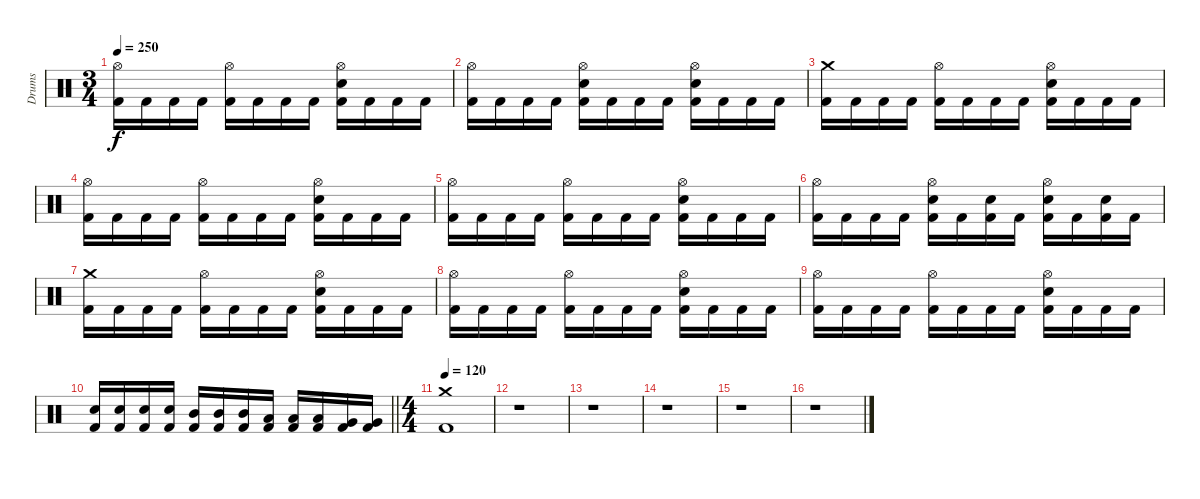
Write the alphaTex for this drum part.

\track ("Drums" "Drums") {instrument percussion}
\staff {score}
\articulation defaults
\ts (3 4)
\tempo 250
\clef neutral
\ks c
("Hi-Hat (open)" "Kick (hit) 2").16{dy f} "Kick (hit) 2".16 "Kick (hit) 2".16 "Kick (hit) 2".16 ("Hi-Hat (open)" "Kick (hit) 2").16 "Kick (hit) 2".16 "Kick (hit) 2".16 "Kick (hit) 2".16 ("Kick (hit) 2" "Hi-Hat (open)" "Snare (hit) 2").16 "Kick (hit) 2".16 "Kick (hit) 2".16 "Kick (hit) 2".16 |
("Hi-Hat (open)" "Kick (hit) 2").16 "Kick (hit) 2".16 "Kick (hit) 2".16 "Kick (hit) 2".16 ("Kick (hit) 2" "Hi-Hat (open)" "Snare (hit) 2").16 "Kick (hit) 2".16 "Kick (hit) 2".16 "Kick (hit) 2".16 ("Kick (hit) 2" "Hi-Hat (open)" "Snare (hit) 2").16 "Kick (hit) 2".16 "Kick (hit) 2".16 "Kick (hit) 2".16 |
("Crash medium (hit)" "Kick (hit) 2").16 "Kick (hit) 2".16 "Kick (hit) 2".16 "Kick (hit) 2".16 ("Hi-Hat (open)" "Kick (hit) 2").16 "Kick (hit) 2".16 "Kick (hit) 2".16 "Kick (hit) 2".16 ("Kick (hit) 2" "Hi-Hat (open)" "Snare (hit) 2").16 "Kick (hit) 2".16 "Kick (hit) 2".16 "Kick (hit) 2".16 |
("Hi-Hat (open)" "Kick (hit) 2").16 "Kick (hit) 2".16 "Kick (hit) 2".16 "Kick (hit) 2".16 ("Hi-Hat (open)" "Kick (hit) 2").16 "Kick (hit) 2".16 "Kick (hit) 2".16 "Kick (hit) 2".16 ("Kick (hit) 2" "Hi-Hat (open)" "Snare (hit) 2").16 "Kick (hit) 2".16 "Kick (hit) 2".16 "Kick (hit) 2".16 |
("Hi-Hat (open)" "Kick (hit) 2").16 "Kick (hit) 2".16 "Kick (hit) 2".16 "Kick (hit) 2".16 ("Hi-Hat (open)" "Kick (hit) 2").16 "Kick (hit) 2".16 "Kick (hit) 2".16 "Kick (hit) 2".16 ("Kick (hit) 2" "Hi-Hat (open)" "Snare (hit) 2").16 "Kick (hit) 2".16 "Kick (hit) 2".16 "Kick (hit) 2".16 |
("Hi-Hat (open)" "Kick (hit) 2").16 "Kick (hit) 2".16 "Kick (hit) 2".16 "Kick (hit) 2".16 ("Kick (hit) 2" "Hi-Hat (open)" "Snare (hit) 2").16 "Kick (hit) 2".16 ("Kick (hit) 2" "Snare (hit) 2").16 "Kick (hit) 2".16 ("Kick (hit) 2" "Hi-Hat (open)" "Snare (hit) 2").16 "Kick (hit) 2".16 ("Kick (hit) 2" "Snare (hit) 2").16 "Kick (hit) 2".16 |
("Crash medium (hit)" "Kick (hit) 2").16 "Kick (hit) 2".16 "Kick (hit) 2".16 "Kick (hit) 2".16 ("Hi-Hat (open)" "Kick (hit) 2").16 "Kick (hit) 2".16 "Kick (hit) 2".16 "Kick (hit) 2".16 ("Kick (hit) 2" "Hi-Hat (open)" "Snare (hit) 2").16 "Kick (hit) 2".16 "Kick (hit) 2".16 "Kick (hit) 2".16 |
("Hi-Hat (open)" "Kick (hit) 2").16 "Kick (hit) 2".16 "Kick (hit) 2".16 "Kick (hit) 2".16 ("Hi-Hat (open)" "Kick (hit) 2").16 "Kick (hit) 2".16 "Kick (hit) 2".16 "Kick (hit) 2".16 ("Kick (hit) 2" "Hi-Hat (open)" "Snare (hit) 2").16 "Kick (hit) 2".16 "Kick (hit) 2".16 "Kick (hit) 2".16 |
("Hi-Hat (open)" "Kick (hit) 2").16 "Kick (hit) 2".16 "Kick (hit) 2".16 "Kick (hit) 2".16 ("Hi-Hat (open)" "Kick (hit) 2").16 "Kick (hit) 2".16 "Kick (hit) 2".16 "Kick (hit) 2".16 ("Kick (hit) 2" "Hi-Hat (open)" "Snare (hit) 2").16 "Kick (hit) 2".16 "Kick (hit) 2".16 "Kick (hit) 2".16 |
\barLineRight lightlight
("Kick (hit) 2" "Snare (hit) 2").16 ("Kick (hit) 2" "Snare (hit) 2").16 ("Kick (hit) 2" "Snare (hit) 2").16 ("Kick (hit) 2" "Snare (hit) 2").16 ("Kick (hit) 2" "Mid Tom (hit)").16 ("Kick (hit) 2" "Mid Tom (hit)").16 ("Kick (hit) 2" "Mid Tom (hit)").16 ("Kick (hit) 2" "Low Tom (hit)").16 ("Kick (hit) 2" "Low Tom (hit)").16 ("Kick (hit) 2" "Low Tom (hit)").16 ("Kick (hit) 2" "Very Low Tom (hit)").16 ("Kick (hit) 2" "Very Low Tom (hit)").16 |
\ts (4 4)
\tempo 120
("Crash medium (hit)" "Kick (hit) 2").1 |
r.1 |
r.1 |
r.1 |
r.1 |
r.1
